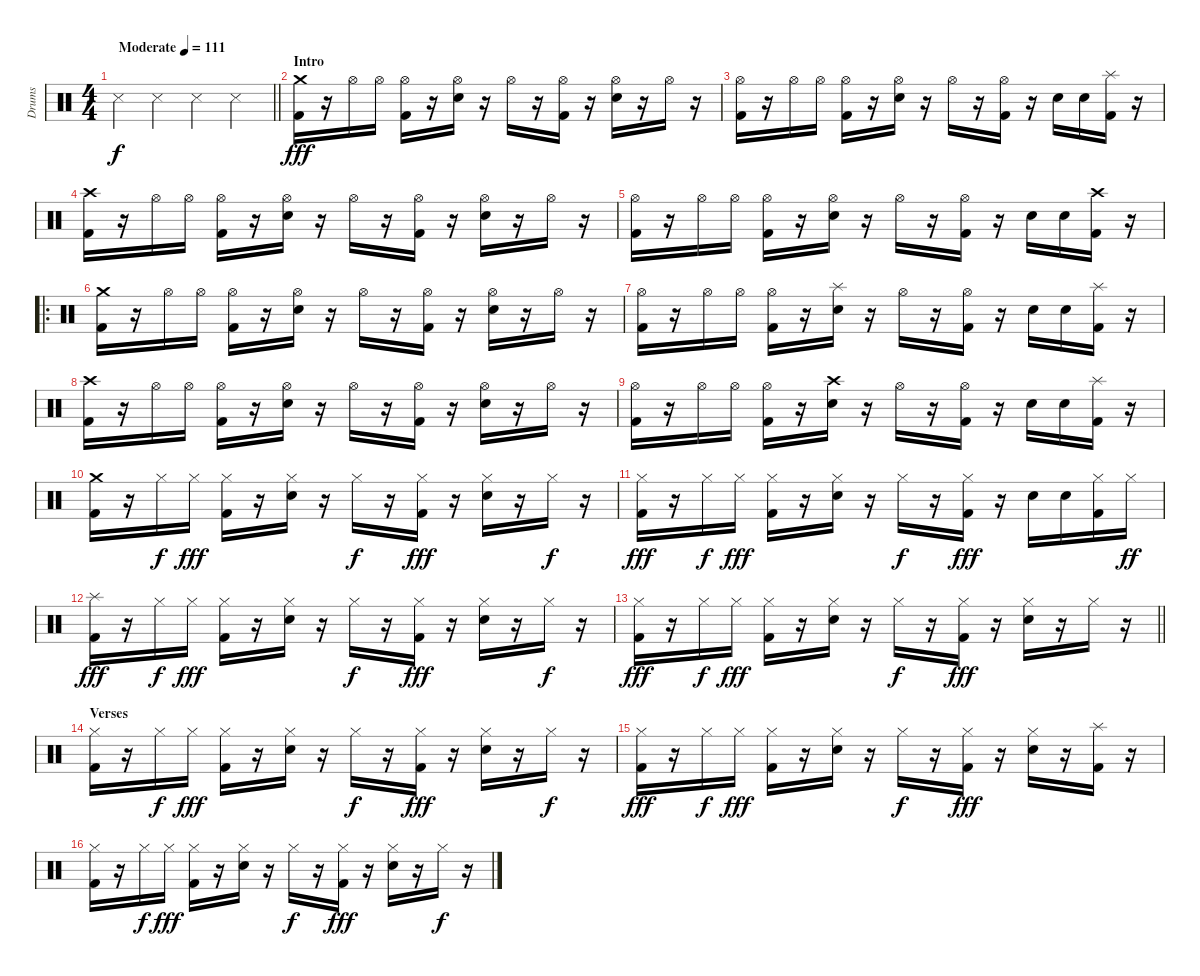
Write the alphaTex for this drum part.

\track ("Drums" "Drums") {instrument percussion}
\staff {score}
\articulation defaults
\ts (4 4)
\tempo (111 "Moderate")
\clef neutral
\barLineRight lightlight
\ks c "Metronome (hit)".4{dy f} "Metronome (hit)".4 "Metronome (hit)".4 "Metronome (hit)".4
|
\section ("" "Intro")
("Crash medium (hit)" "Kick (hit) 2").16{dy fff} r.16 "Hi-Hat (open)".16 "Hi-Hat (open)".16 ("Hi-Hat (open)" "Kick (hit) 2").16 r.16 ("Hi-Hat (open)" "Electric Snare (hit)").16 r.16 "Hi-Hat (open)".16 r.16 ("Hi-Hat (open)" "Kick (hit) 2").16 r.16 ("Hi-Hat (open)" "Electric Snare (hit)").16 r.16 "Hi-Hat (open)".16 r.16 |
("Hi-Hat (open)" "Kick (hit) 2").16 r.16 "Hi-Hat (open)".16 "Hi-Hat (open)".16 ("Hi-Hat (open)" "Kick (hit) 2").16 r.16 ("Hi-Hat (open)" "Electric Snare (hit)").16 r.16 "Hi-Hat (open)".16 r.16 ("Hi-Hat (open)" "Kick (hit) 2").16 r.16 "Electric Snare (hit)".16 "Electric Snare (hit)".16 ("Splash (hit)" "Kick (hit) 2").16 r.16 |
("Crash high (hit)" "Kick (hit) 2").16 r.16 "Hi-Hat (open)".16 "Hi-Hat (open)".16 ("Hi-Hat (open)" "Kick (hit) 2").16 r.16 ("Hi-Hat (open)" "Electric Snare (hit)").16 r.16 "Hi-Hat (open)".16 r.16 ("Hi-Hat (open)" "Kick (hit) 2").16 r.16 ("Hi-Hat (open)" "Electric Snare (hit)").16 r.16 "Hi-Hat (open)".16 r.16 |
("Hi-Hat (open)" "Kick (hit) 2").16 r.16 "Hi-Hat (open)".16 "Hi-Hat (open)".16 ("Hi-Hat (open)" "Kick (hit) 2").16 r.16 ("Hi-Hat (open)" "Electric Snare (hit)").16 r.16 "Hi-Hat (open)".16 r.16 ("Hi-Hat (open)" "Kick (hit) 2").16 r.16 "Electric Snare (hit)".16 "Electric Snare (hit)".16 ("Crash high (hit)" "Kick (hit) 2").16 r.16 |
\ro
("Crash medium (hit)" "Kick (hit) 2").16 r.16 "Hi-Hat (open)".16 "Hi-Hat (open)".16 ("Hi-Hat (open)" "Kick (hit) 2").16 r.16 ("Hi-Hat (open)" "Electric Snare (hit)").16 r.16 "Hi-Hat (open)".16 r.16 ("Hi-Hat (open)" "Kick (hit) 2").16 r.16 ("Hi-Hat (open)" "Electric Snare (hit)").16 r.16 "Hi-Hat (open)".16 r.16 |
("Hi-Hat (open)" "Kick (hit) 2").16 r.16 "Hi-Hat (open)".16 "Hi-Hat (open)".16 ("Hi-Hat (open)" "Kick (hit) 2").16 r.16 ("Splash (hit)" "Electric Snare (hit)").16 r.16 "Hi-Hat (open)".16 r.16 ("Hi-Hat (open)" "Kick (hit) 2").16 r.16 "Electric Snare (hit)".16 "Electric Snare (hit)".16 ("Splash (hit)" "Kick (hit) 2").16 r.16 |
("Crash high (hit)" "Kick (hit) 2").16 r.16 "Hi-Hat (open)".16 "Hi-Hat (open)".16 ("Hi-Hat (open)" "Kick (hit) 2").16 r.16 ("Hi-Hat (open)" "Electric Snare (hit)").16 r.16 "Hi-Hat (open)".16 r.16 ("Hi-Hat (open)" "Kick (hit) 2").16 r.16 ("Hi-Hat (open)" "Electric Snare (hit)").16 r.16 "Hi-Hat (open)".16 r.16 |
("Hi-Hat (open)" "Kick (hit) 2").16 r.16 "Hi-Hat (open)".16 "Hi-Hat (open)".16 ("Hi-Hat (open)" "Kick (hit) 2").16 r.16 ("Crash high (hit)" "Electric Snare (hit)").16 r.16 "Hi-Hat (open)".16 r.16 ("Hi-Hat (open)" "Kick (hit) 2").16 r.16 "Electric Snare (hit)".16 "Electric Snare (hit)".16 ("Splash (hit)" "Kick (hit) 2").16 r.16 |
("Crash medium (hit)" "Kick (hit) 2").16 r.16 "Hi-Hat (closed)".16{dy f} "Hi-Hat (closed)".16{dy fff} ("Hi-Hat (closed)" "Kick (hit) 2").16 r.16 ("Hi-Hat (closed)" "Electric Snare (hit)").16 r.16 "Hi-Hat (closed)".16{dy f} r.16 ("Hi-Hat (closed)" "Kick (hit) 2").16{dy fff} r.16 ("Hi-Hat (closed)" "Electric Snare (hit)").16 r.16 "Hi-Hat (closed)".16{dy f} r.16 |
("Hi-Hat (closed)" "Kick (hit) 2").16{dy fff} r.16 "Hi-Hat (closed)".16{dy f} "Hi-Hat (closed)".16{dy fff} ("Hi-Hat (closed)" "Kick (hit) 2").16 r.16 ("Hi-Hat (closed)" "Electric Snare (hit)").16 r.16 "Hi-Hat (closed)".16{dy f} r.16 ("Hi-Hat (closed)" "Kick (hit) 2").16{dy fff} r.16 "Electric Snare (hit)".16 "Electric Snare (hit)".16 ("Hi-Hat (closed)" "Kick (hit) 2").16 "Hi-Hat (closed)".16{dy ff} |
("Splash (hit)" "Kick (hit) 2").16{dy fff} r.16 "Hi-Hat (closed)".16{dy f} "Hi-Hat (closed)".16{dy fff} ("Hi-Hat (closed)" "Kick (hit) 2").16 r.16 ("Hi-Hat (closed)" "Electric Snare (hit)").16 r.16 "Hi-Hat (closed)".16{dy f} r.16 ("Hi-Hat (closed)" "Kick (hit) 2").16{dy fff} r.16 ("Hi-Hat (closed)" "Electric Snare (hit)").16 r.16 "Hi-Hat (closed)".16{dy f} r.16 |
\barLineRight lightlight
("Hi-Hat (closed)" "Kick (hit) 2").16{dy fff} r.16 "Hi-Hat (closed)".16{dy f} "Hi-Hat (closed)".16{dy fff} ("Hi-Hat (closed)" "Kick (hit) 2").16 r.16 ("Hi-Hat (closed)" "Electric Snare (hit)").16 r.16 "Hi-Hat (closed)".16{dy f} r.16 ("Hi-Hat (closed)" "Kick (hit) 2").16{dy fff} r.16 ("Hi-Hat (closed)" "Electric Snare (hit)").16 r.16 "Hi-Hat (closed)".16 r.16 |
\section ("" "Verses")
("Hi-Hat (closed)" "Kick (hit) 2").16 r.16 "Hi-Hat (closed)".16{dy f} "Hi-Hat (closed)".16{dy fff} ("Hi-Hat (closed)" "Kick (hit) 2").16 r.16 ("Hi-Hat (closed)" "Electric Snare (hit)").16 r.16 "Hi-Hat (closed)".16{dy f} r.16 ("Hi-Hat (closed)" "Kick (hit) 2").16{dy fff} r.16 ("Hi-Hat (closed)" "Electric Snare (hit)").16 r.16 "Hi-Hat (closed)".16{dy f} r.16 |
("Hi-Hat (closed)" "Kick (hit) 2").16{dy fff} r.16 "Hi-Hat (closed)".16{dy f} "Hi-Hat (closed)".16{dy fff} ("Hi-Hat (closed)" "Kick (hit) 2").16 r.16 ("Hi-Hat (closed)" "Electric Snare (hit)").16 r.16 "Hi-Hat (closed)".16{dy f} r.16 ("Hi-Hat (closed)" "Kick (hit) 2").16{dy fff} r.16 ("Hi-Hat (closed)" "Electric Snare (hit)").16 r.16 ("Splash (hit)" "Kick (hit) 2").16 r.16 |
("Hi-Hat (closed)" "Kick (hit) 2").16 r.16 "Hi-Hat (closed)".16{dy f} "Hi-Hat (closed)".16{dy fff} ("Hi-Hat (closed)" "Kick (hit) 2").16 r.16 ("Hi-Hat (closed)" "Electric Snare (hit)").16 r.16 "Hi-Hat (closed)".16{dy f} r.16 ("Hi-Hat (closed)" "Kick (hit) 2").16{dy fff} r.16 ("Hi-Hat (closed)" "Electric Snare (hit)").16 r.16 "Hi-Hat (closed)".16{dy f} r.16
